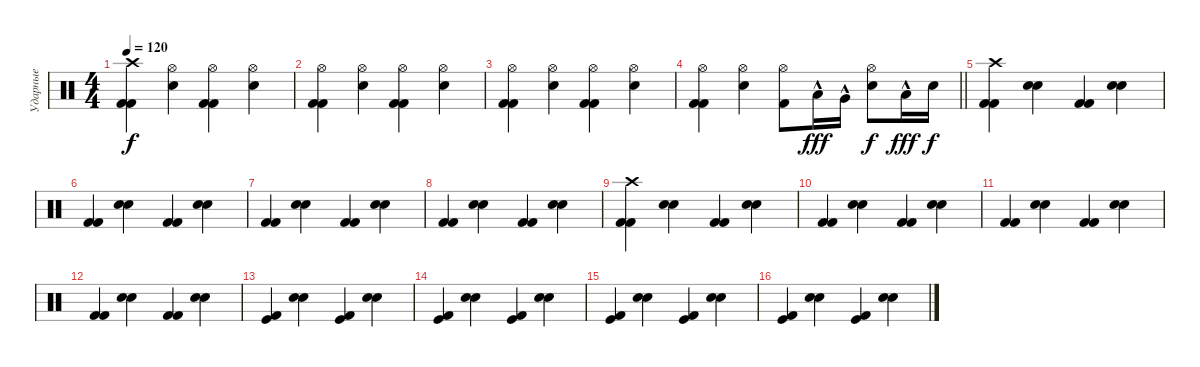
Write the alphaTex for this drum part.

\track ("Ударные" "Ударные") {instrument percussion}
\staff {score}
\articulation defaults
\ts (4 4)
\tempo 120
\clef neutral
\ks c
("Crash high (hit)" "Kick (hit) 2" "Kick (hit) 2").4{dy f} ("Snare (hit) 2" "Hi-Hat (open)").4 ("Hi-Hat (open)" "Kick (hit) 2" "Kick (hit) 2").4 ("Snare (hit) 2" "Hi-Hat (open)").4 |
("Hi-Hat (open)" "Kick (hit) 2" "Kick (hit) 2").4 ("Snare (hit) 2" "Hi-Hat (open)").4 ("Hi-Hat (open)" "Kick (hit) 2" "Kick (hit) 2").4 ("Snare (hit) 2" "Hi-Hat (open)").4 |
("Hi-Hat (open)" "Kick (hit) 2" "Kick (hit) 2").4 ("Snare (hit) 2" "Hi-Hat (open)").4 ("Hi-Hat (open)" "Kick (hit) 2" "Kick (hit) 2").4 ("Snare (hit) 2" "Hi-Hat (open)").4 |
\barLineRight lightlight
("Hi-Hat (open)" "Kick (hit) 2" "Kick (hit) 2").4 ("Hi-Hat (open)" "Snare (hit) 2").4 ("Hi-Hat (open)" "Kick (hit) 2").8 "Low Floor Tom (hit)"{hac}.16{dy fff} "Very Low Tom (hit)"{hac}.16 ("Hi-Hat (open)" "Snare (hit) 2").8{dy f} "Low Tom (hit)"{hac}.16{dy fff} "Snare (hit) 2".16{dy f} |
("Crash high (hit)" "Kick (hit) 2" "Kick (hit) 2").4 ("Electric Snare (hit)" "Electric Snare (hit)").4 ("Kick (hit) 2" "Kick (hit) 2").4 ("Electric Snare (hit)" "Electric Snare (hit)").4 |
("Kick (hit) 2" "Kick (hit) 2").4 ("Electric Snare (hit)" "Electric Snare (hit)").4 ("Kick (hit) 2" "Kick (hit) 2").4 ("Electric Snare (hit)" "Electric Snare (hit)").4 |
("Kick (hit) 2" "Kick (hit) 2").4 ("Electric Snare (hit)" "Electric Snare (hit)").4 ("Kick (hit) 2" "Kick (hit) 2").4 ("Electric Snare (hit)" "Electric Snare (hit)").4 |
("Kick (hit) 2" "Kick (hit) 2").4 ("Electric Snare (hit)" "Electric Snare (hit)").4 ("Kick (hit) 2" "Kick (hit) 2").4 ("Electric Snare (hit)" "Electric Snare (hit)").4 |
("Crash high (hit)" "Kick (hit) 2" "Kick (hit) 2").4 ("Electric Snare (hit)" "Electric Snare (hit)").4 ("Kick (hit) 2" "Kick (hit) 2").4 ("Electric Snare (hit)" "Electric Snare (hit)").4 |
("Kick (hit) 2" "Kick (hit) 2").4 ("Electric Snare (hit)" "Electric Snare (hit)").4 ("Kick (hit) 2" "Kick (hit) 2").4 ("Electric Snare (hit)" "Electric Snare (hit)").4 |
("Kick (hit) 2" "Kick (hit) 2").4 ("Electric Snare (hit)" "Electric Snare (hit)").4 ("Kick (hit) 2" "Kick (hit) 2").4 ("Electric Snare (hit)" "Electric Snare (hit)").4 |
("Kick (hit) 2" "Kick (hit) 2").4 ("Electric Snare (hit)" "Electric Snare (hit)").4 ("Kick (hit) 2" "Kick (hit) 2").4 ("Electric Snare (hit)" "Electric Snare (hit)").4 |
("Kick (hit) 2" "Kick (hit)").4 ("Electric Snare (hit)" "Electric Snare (hit)").4 ("Kick (hit) 2" "Kick (hit)").4 ("Electric Snare (hit)" "Electric Snare (hit)").4 |
("Kick (hit) 2" "Kick (hit)").4 ("Electric Snare (hit)" "Electric Snare (hit)").4 ("Kick (hit) 2" "Kick (hit)").4 ("Electric Snare (hit)" "Electric Snare (hit)").4 |
("Kick (hit) 2" "Kick (hit)").4 ("Electric Snare (hit)" "Electric Snare (hit)").4 ("Kick (hit) 2" "Kick (hit)").4 ("Electric Snare (hit)" "Electric Snare (hit)").4 |
("Kick (hit) 2" "Kick (hit)").4 ("Electric Snare (hit)" "Electric Snare (hit)").4 ("Kick (hit) 2" "Kick (hit)").4 ("Electric Snare (hit)" "Electric Snare (hit)").4
